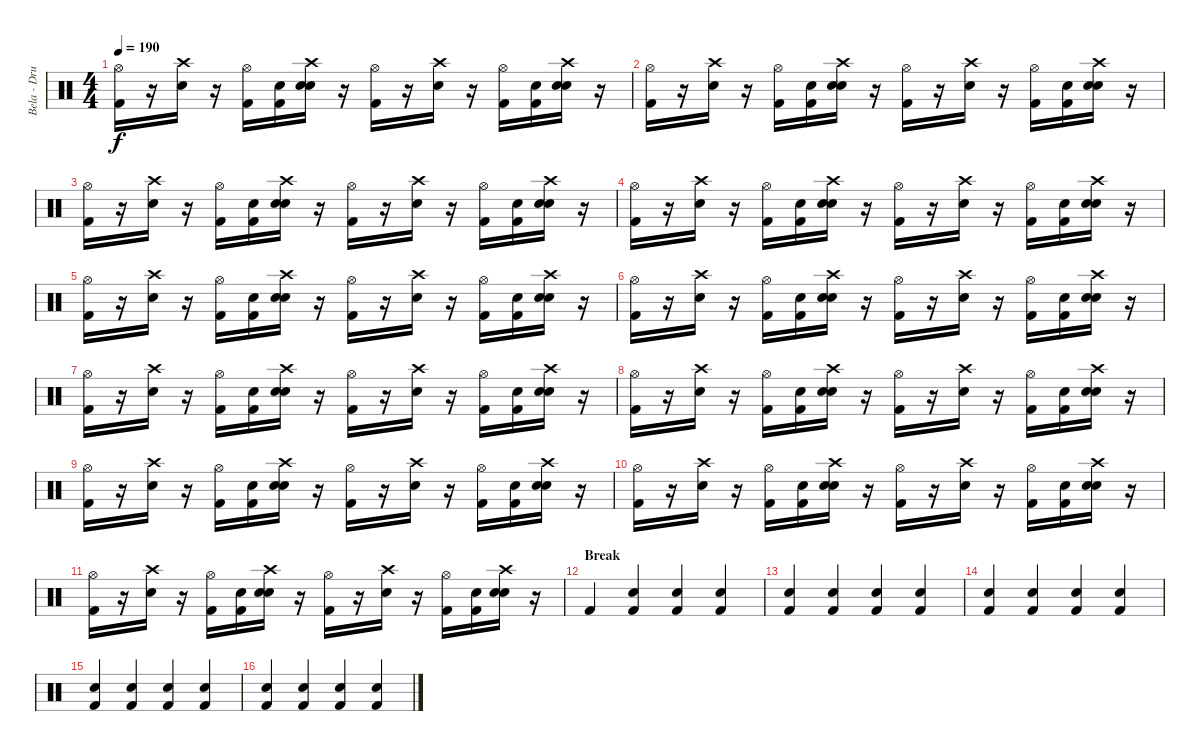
\track ("Bela - Drums" "Bela - Dru") {instrument percussion}
\staff {score}
\articulation defaults
\ts (4 4)
\tempo 190
\clef neutral
\ks c
("Hi-Hat (open)" "Kick (hit) 2").16{dy f} r.16 ("Crash high (hit)" "Electric Snare (hit)").16 r.16 ("Hi-Hat (open)" "Kick (hit) 2").16 ("Snare (hit)" "Kick (hit) 2").16 ("Snare (hit)" "Crash high (hit)" "Electric Snare (hit)").16 r.16 ("Hi-Hat (open)" "Kick (hit) 2").16 r.16 ("Electric Snare (hit)" "Crash high (hit)").16 r.16 ("Hi-Hat (open)" "Kick (hit) 2").16 ("Snare (hit)" "Kick (hit) 2").16 ("Snare (hit)" "Crash high (hit)" "Electric Snare (hit)").16 r.16 |
("Hi-Hat (open)" "Kick (hit) 2").16 r.16 ("Crash high (hit)" "Electric Snare (hit)").16 r.16 ("Hi-Hat (open)" "Kick (hit) 2").16 ("Snare (hit)" "Kick (hit) 2").16 ("Snare (hit)" "Crash high (hit)" "Electric Snare (hit)").16 r.16 ("Hi-Hat (open)" "Kick (hit) 2").16 r.16 ("Electric Snare (hit)" "Crash high (hit)").16 r.16 ("Hi-Hat (open)" "Kick (hit) 2").16 ("Snare (hit)" "Kick (hit) 2").16 ("Snare (hit)" "Crash high (hit)" "Electric Snare (hit)").16 r.16 |
("Hi-Hat (open)" "Kick (hit) 2").16 r.16 ("Crash high (hit)" "Electric Snare (hit)").16 r.16 ("Hi-Hat (open)" "Kick (hit) 2").16 ("Snare (hit)" "Kick (hit) 2").16 ("Snare (hit)" "Crash high (hit)" "Electric Snare (hit)").16 r.16 ("Hi-Hat (open)" "Kick (hit) 2").16 r.16 ("Electric Snare (hit)" "Crash high (hit)").16 r.16 ("Hi-Hat (open)" "Kick (hit) 2").16 ("Snare (hit)" "Kick (hit) 2").16 ("Snare (hit)" "Crash high (hit)" "Electric Snare (hit)").16 r.16 |
("Hi-Hat (open)" "Kick (hit) 2").16 r.16 ("Crash high (hit)" "Electric Snare (hit)").16 r.16 ("Hi-Hat (open)" "Kick (hit) 2").16 ("Snare (hit)" "Kick (hit) 2").16 ("Snare (hit)" "Crash high (hit)" "Electric Snare (hit)").16 r.16 ("Hi-Hat (open)" "Kick (hit) 2").16 r.16 ("Electric Snare (hit)" "Crash high (hit)").16 r.16 ("Hi-Hat (open)" "Kick (hit) 2").16 ("Snare (hit)" "Kick (hit) 2").16 ("Snare (hit)" "Crash high (hit)" "Electric Snare (hit)").16 r.16 |
("Hi-Hat (open)" "Kick (hit) 2").16 r.16 ("Crash high (hit)" "Electric Snare (hit)").16 r.16 ("Hi-Hat (open)" "Kick (hit) 2").16 ("Snare (hit)" "Kick (hit) 2").16 ("Snare (hit)" "Crash high (hit)" "Electric Snare (hit)").16 r.16 ("Hi-Hat (open)" "Kick (hit) 2").16 r.16 ("Electric Snare (hit)" "Crash high (hit)").16 r.16 ("Hi-Hat (open)" "Kick (hit) 2").16 ("Snare (hit)" "Kick (hit) 2").16 ("Snare (hit)" "Crash high (hit)" "Electric Snare (hit)").16 r.16 |
("Hi-Hat (open)" "Kick (hit) 2").16 r.16 ("Crash high (hit)" "Electric Snare (hit)").16 r.16 ("Hi-Hat (open)" "Kick (hit) 2").16 ("Snare (hit)" "Kick (hit) 2").16 ("Snare (hit)" "Crash high (hit)" "Electric Snare (hit)").16 r.16 ("Hi-Hat (open)" "Kick (hit) 2").16 r.16 ("Electric Snare (hit)" "Crash high (hit)").16 r.16 ("Hi-Hat (open)" "Kick (hit) 2").16 ("Snare (hit)" "Kick (hit) 2").16 ("Snare (hit)" "Crash high (hit)" "Electric Snare (hit)").16 r.16 |
("Hi-Hat (open)" "Kick (hit) 2").16 r.16 ("Crash high (hit)" "Electric Snare (hit)").16 r.16 ("Hi-Hat (open)" "Kick (hit) 2").16 ("Snare (hit)" "Kick (hit) 2").16 ("Snare (hit)" "Crash high (hit)" "Electric Snare (hit)").16 r.16 ("Hi-Hat (open)" "Kick (hit) 2").16 r.16 ("Electric Snare (hit)" "Crash high (hit)").16 r.16 ("Hi-Hat (open)" "Kick (hit) 2").16 ("Snare (hit)" "Kick (hit) 2").16 ("Snare (hit)" "Crash high (hit)" "Electric Snare (hit)").16 r.16 |
("Hi-Hat (open)" "Kick (hit) 2").16 r.16 ("Crash high (hit)" "Electric Snare (hit)").16 r.16 ("Hi-Hat (open)" "Kick (hit) 2").16 ("Snare (hit)" "Kick (hit) 2").16 ("Snare (hit)" "Crash high (hit)" "Electric Snare (hit)").16 r.16 ("Hi-Hat (open)" "Kick (hit) 2").16 r.16 ("Electric Snare (hit)" "Crash high (hit)").16 r.16 ("Hi-Hat (open)" "Kick (hit) 2").16 ("Snare (hit)" "Kick (hit) 2").16 ("Snare (hit)" "Crash high (hit)" "Electric Snare (hit)").16 r.16 |
("Hi-Hat (open)" "Kick (hit) 2").16 r.16 ("Crash high (hit)" "Electric Snare (hit)").16 r.16 ("Hi-Hat (open)" "Kick (hit) 2").16 ("Snare (hit)" "Kick (hit) 2").16 ("Snare (hit)" "Crash high (hit)" "Electric Snare (hit)").16 r.16 ("Hi-Hat (open)" "Kick (hit) 2").16 r.16 ("Electric Snare (hit)" "Crash high (hit)").16 r.16 ("Hi-Hat (open)" "Kick (hit) 2").16 ("Snare (hit)" "Kick (hit) 2").16 ("Snare (hit)" "Crash high (hit)" "Electric Snare (hit)").16 r.16 |
("Hi-Hat (open)" "Kick (hit) 2").16 r.16 ("Crash high (hit)" "Electric Snare (hit)").16 r.16 ("Hi-Hat (open)" "Kick (hit) 2").16 ("Snare (hit)" "Kick (hit) 2").16 ("Snare (hit)" "Crash high (hit)" "Electric Snare (hit)").16 r.16 ("Hi-Hat (open)" "Kick (hit) 2").16 r.16 ("Electric Snare (hit)" "Crash high (hit)").16 r.16 ("Hi-Hat (open)" "Kick (hit) 2").16 ("Snare (hit)" "Kick (hit) 2").16 ("Snare (hit)" "Crash high (hit)" "Electric Snare (hit)").16 r.16 |
("Hi-Hat (open)" "Kick (hit) 2").16 r.16 ("Crash high (hit)" "Electric Snare (hit)").16 r.16 ("Hi-Hat (open)" "Kick (hit) 2").16 ("Snare (hit)" "Kick (hit) 2").16 ("Snare (hit)" "Crash high (hit)" "Electric Snare (hit)").16 r.16 ("Hi-Hat (open)" "Kick (hit) 2").16 r.16 ("Electric Snare (hit)" "Crash high (hit)").16 r.16 ("Hi-Hat (open)" "Kick (hit) 2").16 ("Snare (hit)" "Kick (hit) 2").16 ("Snare (hit)" "Crash high (hit)" "Electric Snare (hit)").16 r.16 |
\section ("" "Break")
"Kick (hit) 2".4 ("Snare (hit)" "Kick (hit) 2").4 ("Snare (hit)" "Kick (hit) 2").4 ("Snare (hit)" "Kick (hit) 2").4 |
("Snare (hit)" "Kick (hit) 2").4 ("Snare (hit)" "Kick (hit) 2").4 ("Snare (hit)" "Kick (hit) 2").4 ("Snare (hit)" "Kick (hit) 2").4 |
("Snare (hit)" "Kick (hit) 2").4 ("Snare (hit)" "Kick (hit) 2").4 ("Snare (hit)" "Kick (hit) 2").4 ("Snare (hit)" "Kick (hit) 2").4 |
("Snare (hit)" "Kick (hit) 2").4 ("Snare (hit)" "Kick (hit) 2").4 ("Snare (hit)" "Kick (hit) 2").4 ("Snare (hit)" "Kick (hit) 2").4 |
("Snare (hit)" "Kick (hit) 2").4 ("Snare (hit)" "Kick (hit) 2").4 ("Snare (hit)" "Kick (hit) 2").4 ("Snare (hit)" "Kick (hit) 2").4
